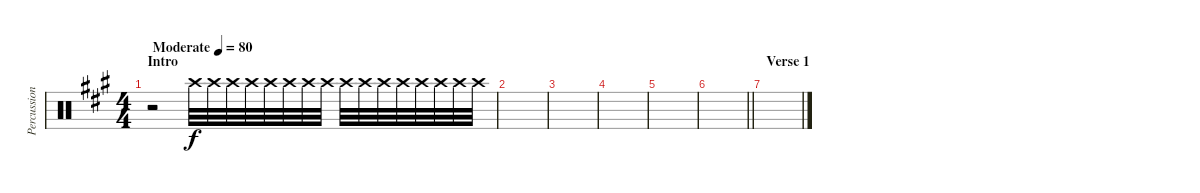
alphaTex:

\track ("Percussion" "Percussion") {instrument percussion bank 47}
\staff {score}
\articulation defaults
\ts (4 4)
\section ("" "Intro")
\tempo (80 "Moderate")
\clef neutral
\ks a
r.2{dy f volume 0} "Crash high (hit)".32{volume 13} "Crash high (hit)".32 "Crash high (hit)".32 "Crash high (hit)".32 "Crash high (hit)".32 "Crash high (hit)".32 "Crash high (hit)".32 "Crash high (hit)".32 "Crash high (hit)".32 "Crash high (hit)".32 "Crash high (hit)".32 "Crash high (hit)".32 "Crash high (hit)".32 "Crash high (hit)".32 "Crash high (hit)".32 "Crash high (hit)".32 |
|
|
|
|
\barLineRight lightlight
|
\section ("" "Verse 1")
